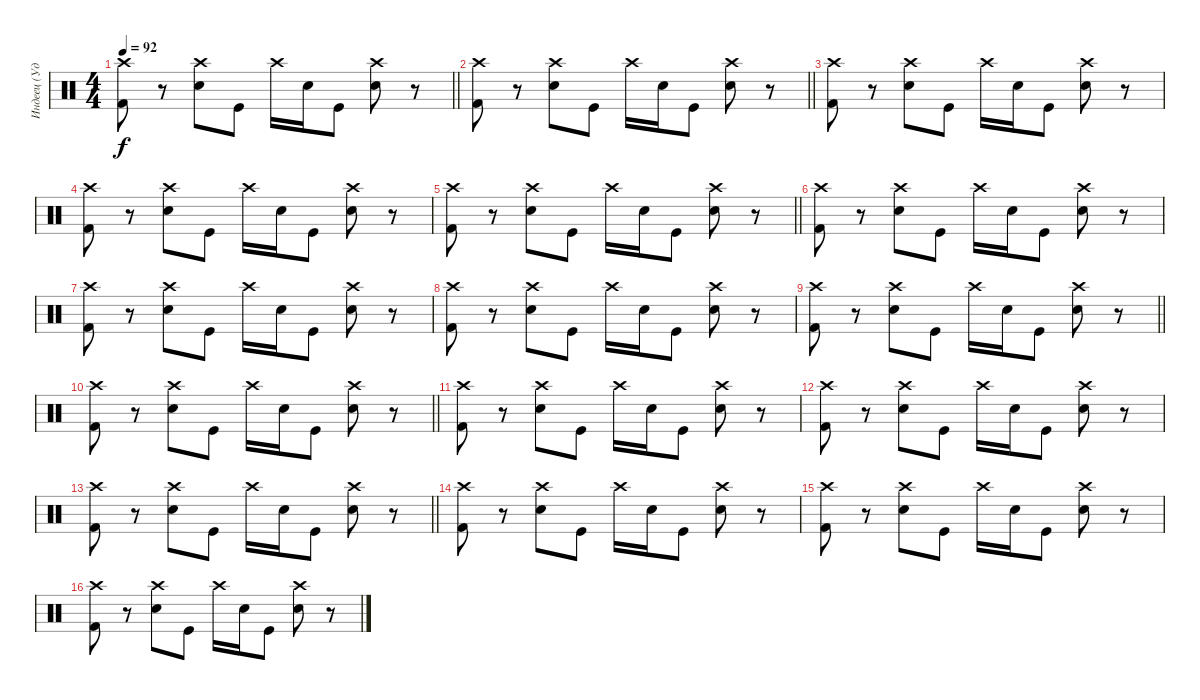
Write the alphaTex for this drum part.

\track ("Индеец (Ударные)" "Индеец (Уд") {instrument percussion}
\staff {score}
\articulation defaults
\ts (4 4)
\tempo 92
\clef neutral
\barLineRight lightlight
\ks c
("Crash high (hit)" "Kick (hit) 2").8{dy f} r.8 ("Crash high (hit)" "Electric Snare (hit)").8 "Kick (hit)".8 "Crash high (hit)".16 "Electric Snare (hit)".16 "Kick (hit)".8 ("Crash high (hit)" "Electric Snare (hit)").8 r.8 |
\barLineRight lightlight
("Crash high (hit)" "Kick (hit) 2").8 r.8 ("Crash high (hit)" "Electric Snare (hit)").8 "Kick (hit)".8 "Crash high (hit)".16 "Electric Snare (hit)".16 "Kick (hit)".8 ("Crash high (hit)" "Electric Snare (hit)").8 r.8 |
("Crash high (hit)" "Kick (hit) 2").8 r.8 ("Crash high (hit)" "Electric Snare (hit)").8 "Kick (hit)".8 "Crash high (hit)".16 "Electric Snare (hit)".16 "Kick (hit)".8 ("Crash high (hit)" "Electric Snare (hit)").8 r.8 |
("Crash high (hit)" "Kick (hit) 2").8 r.8 ("Crash high (hit)" "Electric Snare (hit)").8 "Kick (hit)".8 "Crash high (hit)".16 "Electric Snare (hit)".16 "Kick (hit)".8 ("Crash high (hit)" "Electric Snare (hit)").8 r.8 |
\barLineRight lightlight
("Crash high (hit)" "Kick (hit) 2").8 r.8 ("Crash high (hit)" "Electric Snare (hit)").8 "Kick (hit)".8 "Crash high (hit)".16 "Electric Snare (hit)".16 "Kick (hit)".8 ("Crash high (hit)" "Electric Snare (hit)").8 r.8 |
\section ("" "")
("Crash high (hit)" "Kick (hit) 2").8 r.8 ("Crash high (hit)" "Electric Snare (hit)").8 "Kick (hit)".8 "Crash high (hit)".16 "Electric Snare (hit)".16 "Kick (hit)".8 ("Crash high (hit)" "Electric Snare (hit)").8 r.8 |
("Crash high (hit)" "Kick (hit) 2").8 r.8 ("Crash high (hit)" "Electric Snare (hit)").8 "Kick (hit)".8 "Crash high (hit)".16 "Electric Snare (hit)".16 "Kick (hit)".8 ("Crash high (hit)" "Electric Snare (hit)").8 r.8 |
("Crash high (hit)" "Kick (hit) 2").8 r.8 ("Crash high (hit)" "Electric Snare (hit)").8 "Kick (hit)".8 "Crash high (hit)".16 "Electric Snare (hit)".16 "Kick (hit)".8 ("Crash high (hit)" "Electric Snare (hit)").8 r.8 |
\barLineRight lightlight
("Crash high (hit)" "Kick (hit) 2").8 r.8 ("Crash high (hit)" "Electric Snare (hit)").8 "Kick (hit)".8 "Crash high (hit)".16 "Electric Snare (hit)".16 "Kick (hit)".8 ("Crash high (hit)" "Electric Snare (hit)").8 r.8 |
\barLineRight lightlight
("Crash high (hit)" "Kick (hit) 2").8 r.8 ("Crash high (hit)" "Electric Snare (hit)").8 "Kick (hit)".8 "Crash high (hit)".16 "Electric Snare (hit)".16 "Kick (hit)".8 ("Crash high (hit)" "Electric Snare (hit)").8 r.8 |
("Crash high (hit)" "Kick (hit) 2").8 r.8 ("Crash high (hit)" "Electric Snare (hit)").8 "Kick (hit)".8 "Crash high (hit)".16 "Electric Snare (hit)".16 "Kick (hit)".8 ("Crash high (hit)" "Electric Snare (hit)").8 r.8 |
("Crash high (hit)" "Kick (hit) 2").8 r.8 ("Crash high (hit)" "Electric Snare (hit)").8 "Kick (hit)".8 "Crash high (hit)".16 "Electric Snare (hit)".16 "Kick (hit)".8 ("Crash high (hit)" "Electric Snare (hit)").8 r.8 |
\barLineRight lightlight
("Crash high (hit)" "Kick (hit) 2").8 r.8 ("Crash high (hit)" "Electric Snare (hit)").8 "Kick (hit)".8 "Crash high (hit)".16 "Electric Snare (hit)".16 "Kick (hit)".8 ("Crash high (hit)" "Electric Snare (hit)").8 r.8 |
\section ("" "")
("Crash high (hit)" "Kick (hit) 2").8 r.8 ("Crash high (hit)" "Electric Snare (hit)").8 "Kick (hit)".8 "Crash high (hit)".16 "Electric Snare (hit)".16 "Kick (hit)".8 ("Crash high (hit)" "Electric Snare (hit)").8 r.8 |
("Crash high (hit)" "Kick (hit) 2").8 r.8 ("Crash high (hit)" "Electric Snare (hit)").8 "Kick (hit)".8 "Crash high (hit)".16 "Electric Snare (hit)".16 "Kick (hit)".8 ("Crash high (hit)" "Electric Snare (hit)").8 r.8 |
("Crash high (hit)" "Kick (hit) 2").8 r.8 ("Crash high (hit)" "Electric Snare (hit)").8 "Kick (hit)".8 "Crash high (hit)".16 "Electric Snare (hit)".16 "Kick (hit)".8 ("Crash high (hit)" "Electric Snare (hit)").8 r.8
